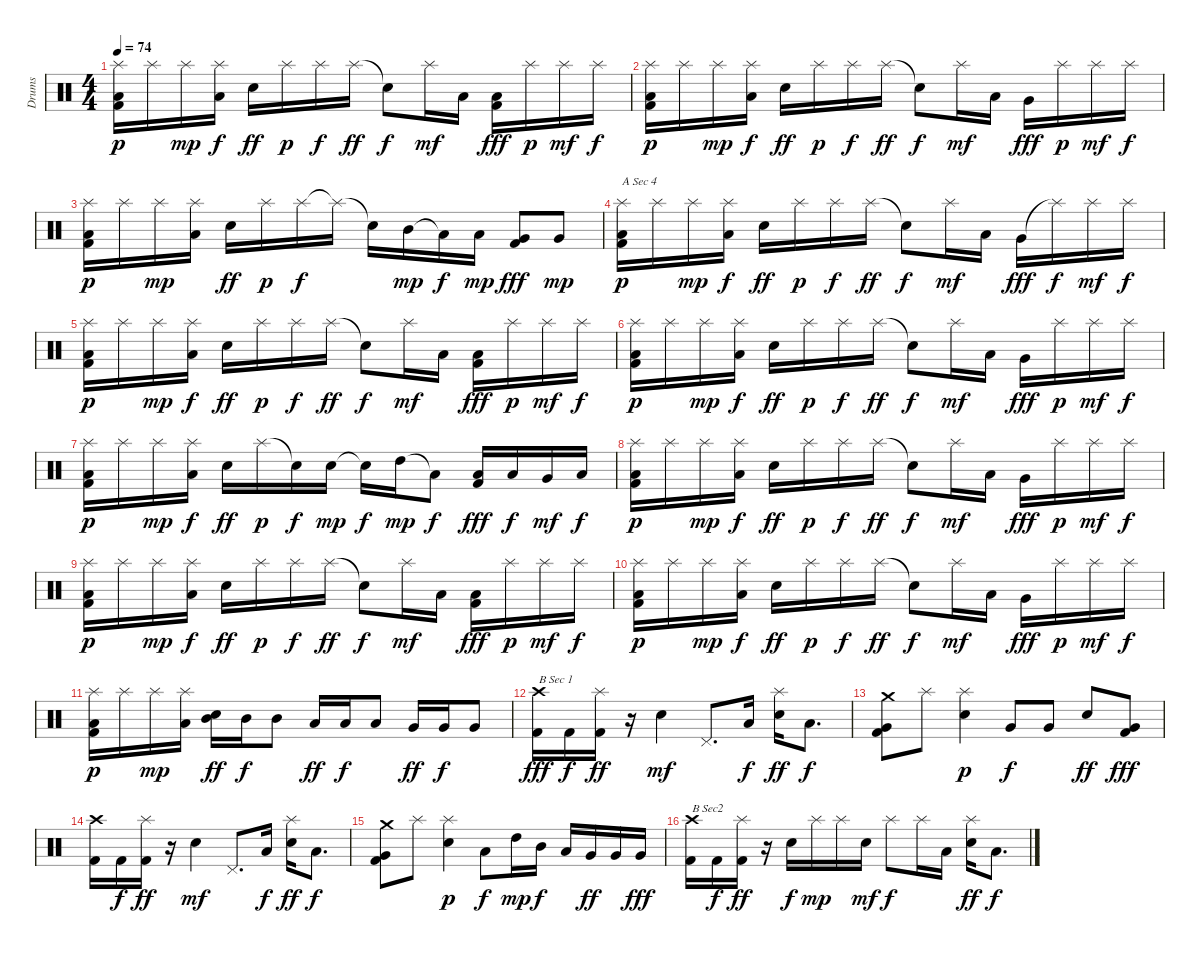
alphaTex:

\track ("Drums" "Drums") {instrument percussion}
\staff {score}
\articulation defaults
\ts (4 4)
\tempo 74
\clef neutral
\ks c
("Low Tom (hit)" "Kick (hit) 2" "Splash (hit)").16{dy p} "Splash (hit)".16 "Splash (hit)".16{dy mp} ("Splash (hit)" "Low Tom (hit)").16{dy f} "Electric Snare (hit)".16{dy ff} "Splash (hit)".16{dy p} "Splash (hit)".16{dy f} "Splash (hit)".16{dy ff} "Snare (hit)"{t}.8{dy f} "Splash (hit)".16{dy mf} "Low Tom (hit)".16 ("Low Floor Tom (hit)" "Kick (hit) 2").16{dy fff} "Splash (hit)".16{dy p} "Splash (hit)".16{dy mf} "Splash (hit)".16{dy f} |
("Low Tom (hit)" "Kick (hit) 2" "Splash (hit)").16{dy p} "Splash (hit)".16 "Splash (hit)".16{dy mp} ("Splash (hit)" "Low Tom (hit)").16{dy f} "Electric Snare (hit)".16{dy ff} "Splash (hit)".16{dy p} "Splash (hit)".16{dy f} "Splash (hit)".16{dy ff} "Snare (hit)"{t}.8{dy f} "Splash (hit)".16{dy mf} "Low Tom (hit)".16 "Very Low Tom (hit)".16{dy fff} "Splash (hit)".16{dy p} "Splash (hit)".16{dy mf} "Splash (hit)".16{dy f} |
("Low Tom (hit)" "Kick (hit) 2" "Splash (hit)").16{dy p} "Splash (hit)".16 "Splash (hit)".16{dy mp} ("Splash (hit)" "Low Tom (hit)").16 "Electric Snare (hit)".16{dy ff} "Splash (hit)".16{dy p} "Splash (hit)".16{dy f} "Splash (hit)"{t}.16 "Snare (hit)"{t}.16 "Mid Tom (hit)".16{dy mp} "Low Tom (hit)"{t}.16{dy f} "Low Tom (hit)".16{dy mp} ("Very Low Tom (hit)" "Kick (hit) 2").8{dy fff} "Very Low Tom (hit)".8{dy mp} |
("Low Tom (hit)" "Kick (hit) 2" "Splash (hit)").16{txt "A Sec 4" dy p} "Splash (hit)".16 "Splash (hit)".16{dy mp} ("Splash (hit)" "Low Tom (hit)").16{dy f} "Electric Snare (hit)".16{dy ff} "Splash (hit)".16{dy p} "Splash (hit)".16{dy f} "Splash (hit)".16{dy ff} "Snare (hit)"{t}.8{dy f} "Splash (hit)".16{dy mf} "Low Tom (hit)".16 "Very Low Tom (hit)".16{dy fff} "Splash (hit)"{t}.16{dy f} "Splash (hit)".16{dy mf} "Splash (hit)".16{dy f} |
("Low Tom (hit)" "Kick (hit) 2" "Splash (hit)").16{dy p} "Splash (hit)".16 "Splash (hit)".16{dy mp} ("Splash (hit)" "Low Tom (hit)").16{dy f} "Electric Snare (hit)".16{dy ff} "Splash (hit)".16{dy p} "Splash (hit)".16{dy f} "Splash (hit)".16{dy ff} "Snare (hit)"{t}.8{dy f} "Splash (hit)".16{dy mf} "Low Tom (hit)".16 ("Low Floor Tom (hit)" "Kick (hit) 2").16{dy fff} "Splash (hit)".16{dy p} "Splash (hit)".16{dy mf} "Splash (hit)".16{dy f} |
("Low Tom (hit)" "Kick (hit) 2" "Splash (hit)").16{dy p} "Splash (hit)".16 "Splash (hit)".16{dy mp} ("Splash (hit)" "Low Tom (hit)").16{dy f} "Electric Snare (hit)".16{dy ff} "Splash (hit)".16{dy p} "Splash (hit)".16{dy f} "Splash (hit)".16{dy ff} "Snare (hit)"{t}.8{dy f} "Splash (hit)".16{dy mf} "Low Tom (hit)".16 "Very Low Tom (hit)".16{dy fff} "Splash (hit)".16{dy p} "Splash (hit)".16{dy mf} "Splash (hit)".16{dy f} |
("Low Tom (hit)" "Kick (hit) 2" "Splash (hit)").16{dy p} "Splash (hit)".16 "Splash (hit)".16{dy mp} ("Splash (hit)" "Low Tom (hit)").16{dy f} "Electric Snare (hit)".16{dy ff} "Splash (hit)".16{dy p} "Snare (hit)"{t}.16{dy f} "Electric Snare (hit)".16{dy mp} "Snare (hit)"{t}.16{dy f} "High Tom (hit)".16{dy mp} "Low Tom (hit)"{t}.8{dy f} ("Low Tom (hit)" "Kick (hit) 2").16{dy fff} "Low Tom (hit)".16{dy f} "Very Low Tom (hit)".16{dy mf} "Low Floor Tom (hit)".16{dy f} |
("Low Tom (hit)" "Kick (hit) 2" "Splash (hit)").16{dy p} "Splash (hit)".16 "Splash (hit)".16{dy mp} ("Splash (hit)" "Low Tom (hit)").16{dy f} "Electric Snare (hit)".16{dy ff} "Splash (hit)".16{dy p} "Splash (hit)".16{dy f} "Splash (hit)".16{dy ff} "Snare (hit)"{t}.8{dy f} "Splash (hit)".16{dy mf} "Low Tom (hit)".16 "Very Low Tom (hit)".16{dy fff} "Splash (hit)".16{dy p} "Splash (hit)".16{dy mf} "Splash (hit)".16{dy f} |
("Low Tom (hit)" "Kick (hit) 2" "Splash (hit)").16{dy p} "Splash (hit)".16 "Splash (hit)".16{dy mp} ("Splash (hit)" "Low Tom (hit)").16{dy f} "Electric Snare (hit)".16{dy ff} "Splash (hit)".16{dy p} "Splash (hit)".16{dy f} "Splash (hit)".16{dy ff} "Snare (hit)"{t}.8{dy f} "Splash (hit)".16{dy mf} "Low Tom (hit)".16 ("Low Floor Tom (hit)" "Kick (hit) 2").16{dy fff} "Splash (hit)".16{dy p} "Splash (hit)".16{dy mf} "Splash (hit)".16{dy f} |
("Low Tom (hit)" "Kick (hit) 2" "Splash (hit)").16{dy p} "Splash (hit)".16 "Splash (hit)".16{dy mp} ("Splash (hit)" "Low Tom (hit)").16{dy f} "Electric Snare (hit)".16{dy ff} "Splash (hit)".16{dy p} "Splash (hit)".16{dy f} "Splash (hit)".16{dy ff} "Snare (hit)"{t}.8{dy f} "Splash (hit)".16{dy mf} "Low Tom (hit)".16 "Very Low Tom (hit)".16{dy fff} "Splash (hit)".16{dy p} "Splash (hit)".16{dy mf} "Splash (hit)".16{dy f} |
("Low Tom (hit)" "Kick (hit) 2" "Splash (hit)").16{dy p} "Splash (hit)".16 "Splash (hit)".16{dy mp} ("Splash (hit)" "Low Tom (hit)").16 ("Mid Tom (hit)" "Electric Snare (hit)").16{dy ff} "Mid Tom (hit)".16{dy f} "Mid Tom (hit)".8 "Low Tom (hit)".16{dy ff} "Low Tom (hit)".16{dy f} "Low Tom (hit)".8 "Very Low Tom (hit)".16{dy ff} "Very Low Tom (hit)".16{dy f} "Very Low Tom (hit)".8 |
("Kick (hit) 2" "Crash high (hit)").16{txt "B Sec 1" dy fff} "Kick (hit) 2".16{dy f} ("Kick (hit) 2" "Splash (hit)").16{dy ff} r.16 "Electric Snare (hit)".4{dy mf} "Pedal Hi-Hat (hit)".8{d} "Low Tom (hit)".16{dy f} ("Electric Snare (hit)" "Splash (hit)").16{dy ff} "Low Tom (hit)".8{d dy f} |
("Very Low Tom (hit)" "Crash medium (hit)" "Kick (hit) 2").8 "Splash (hit)".8 ("Electric Snare (hit)" "Splash (hit)").4{dy p} "Very Low Tom (hit)".8{dy f} "Very Low Tom (hit)".8 "Electric Snare (hit)".8{dy ff} ("Very Low Tom (hit)" "Kick (hit) 2").8{dy fff} |
("Kick (hit) 2" "Crash high (hit)").16 "Kick (hit) 2".16{dy f} ("Kick (hit) 2" "Splash (hit)").16{dy ff} r.16 "Electric Snare (hit)".4{dy mf} "Pedal Hi-Hat (hit)".8{d} "Low Tom (hit)".16{dy f} ("Electric Snare (hit)" "Splash (hit)").16{dy ff} "Low Tom (hit)".8{d dy f} |
("Very Low Tom (hit)" "Crash medium (hit)" "Kick (hit) 2").8 "Splash (hit)".8 ("Electric Snare (hit)" "Splash (hit)").4{dy p} "Low Tom (hit)".8{dy f} "High Tom (hit)".16{dy mp} "Mid Tom (hit)".16{dy f} "Low Tom (hit)".16 "Very Low Tom (hit)".16{dy ff} "Very Low Tom (hit)".16 "Very Low Tom (hit)".16{dy fff} |
("Kick (hit) 2" "Crash high (hit)").16{txt "B Sec2"} "Kick (hit) 2".16{dy f} ("Kick (hit) 2" "Splash (hit)").16{dy ff} r.16 "Electric Snare (hit)".16{dy f} "Splash (hit)".16{dy mp} "Splash (hit)".16 "Electric Snare (hit)".16{dy mf} "Splash (hit)".8{dy f} "Splash (hit)".16 "Low Tom (hit)".16 ("Electric Snare (hit)" "Splash (hit)").16{dy ff} "Low Tom (hit)".8{d dy f}
